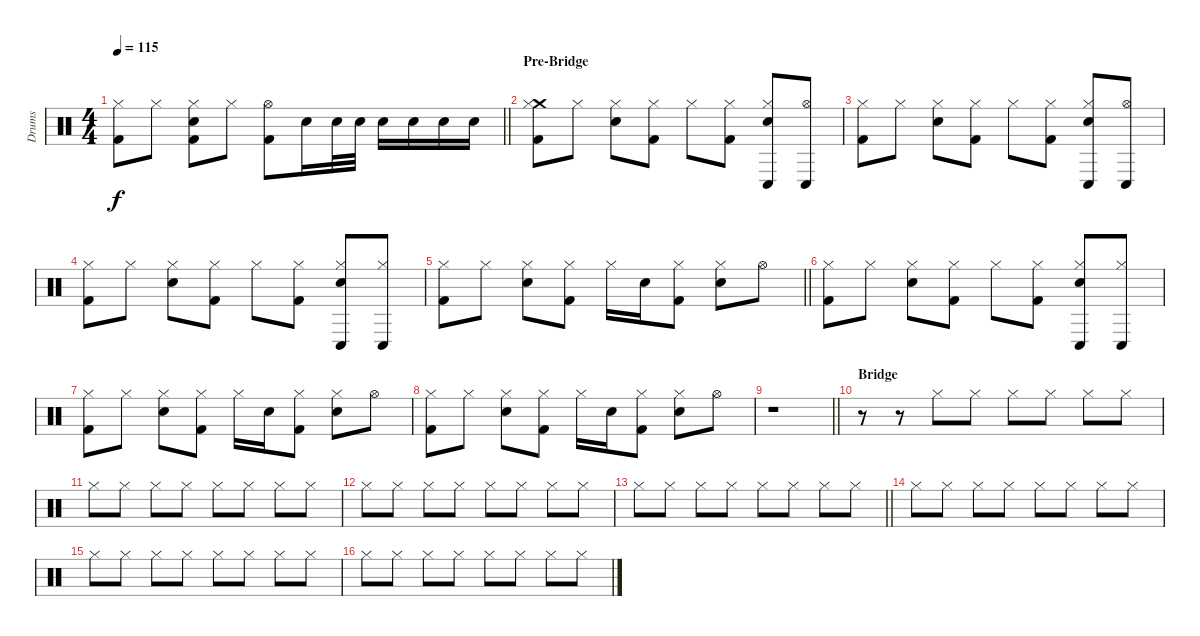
\track ("Drums" "Drums") {instrument percussion}
\staff {score}
\articulation defaults
\ts (4 4)
\tempo 115
\clef neutral
\barLineRight lightlight
\ks c
("Kick (hit) 2" "Hi-Hat (closed)").8{dy f} "Hi-Hat (closed)".8 ("Kick (hit) 2" "Electric Snare (hit)" "Hi-Hat (closed)").8 "Hi-Hat (closed)".8 ("Kick (hit) 2" "Hi-Hat (open)").8 "Electric Snare (hit)".16 "Electric Snare (hit)".32 "Electric Snare (hit)".32 "Electric Snare (hit)".16 "Electric Snare (hit)".16 "Electric Snare (hit)".16 "Electric Snare (hit)".16 |
\section ("" "Pre-Bridge")
("Crash medium (hit)" "Kick (hit) 2" "Hi-Hat (closed)").8 "Hi-Hat (closed)".8 ("Electric Snare (hit)" "Hi-Hat (closed)").8 ("Kick (hit) 2" "Hi-Hat (closed)").8 "Hi-Hat (closed)".8 ("Kick (hit) 2" "Hi-Hat (closed)").8 ("Conga low (hit)" "Electric Snare (hit)" "Hi-Hat (closed)").8 ("Conga low (hit)" "Hi-Hat (open)").8 |
("Kick (hit) 2" "Hi-Hat (closed)").8 "Hi-Hat (closed)".8 ("Electric Snare (hit)" "Hi-Hat (closed)").8 ("Kick (hit) 2" "Hi-Hat (closed)").8 "Hi-Hat (closed)".8 ("Kick (hit) 2" "Hi-Hat (closed)").8 ("Conga low (hit)" "Electric Snare (hit)" "Hi-Hat (closed)").8 ("Conga low (hit)" "Hi-Hat (open)").8 |
("Kick (hit) 2" "Hi-Hat (closed)").8 "Hi-Hat (closed)".8 ("Electric Snare (hit)" "Hi-Hat (closed)").8 ("Kick (hit) 2" "Hi-Hat (closed)").8 "Hi-Hat (closed)".8 ("Kick (hit) 2" "Hi-Hat (closed)").8 ("Conga low (hit)" "Electric Snare (hit)" "Hi-Hat (closed)").8 ("Conga low (hit)" "Hi-Hat (closed)").8 |
\barLineRight lightlight
("Kick (hit) 2" "Hi-Hat (closed)").8 "Hi-Hat (closed)".8 ("Electric Snare (hit)" "Hi-Hat (closed)").8 ("Kick (hit) 2" "Hi-Hat (closed)").8 "Hi-Hat (closed)".16 "Electric Snare (hit)".16 ("Kick (hit) 2" "Hi-Hat (closed)").8 ("Electric Snare (hit)" "Hi-Hat (closed)").8 "Hi-Hat (open)".8 |
("Kick (hit) 2" "Hi-Hat (closed)").8 "Hi-Hat (closed)".8 ("Electric Snare (hit)" "Hi-Hat (closed)").8 ("Kick (hit) 2" "Hi-Hat (closed)").8 "Hi-Hat (closed)".8 ("Kick (hit) 2" "Hi-Hat (closed)").8 ("Conga low (hit)" "Electric Snare (hit)" "Hi-Hat (closed)").8 ("Conga low (hit)" "Hi-Hat (closed)").8 |
("Kick (hit) 2" "Hi-Hat (closed)").8 "Hi-Hat (closed)".8 ("Electric Snare (hit)" "Hi-Hat (closed)").8 ("Kick (hit) 2" "Hi-Hat (closed)").8 "Hi-Hat (closed)".16 "Electric Snare (hit)".16 ("Kick (hit) 2" "Hi-Hat (closed)").8 ("Electric Snare (hit)" "Hi-Hat (closed)").8 "Hi-Hat (open)".8 |
("Kick (hit) 2" "Hi-Hat (closed)").8 "Hi-Hat (closed)".8 ("Electric Snare (hit)" "Hi-Hat (closed)").8 ("Kick (hit) 2" "Hi-Hat (closed)").8 "Hi-Hat (closed)".16 "Electric Snare (hit)".16 ("Kick (hit) 2" "Hi-Hat (closed)").8 ("Electric Snare (hit)" "Hi-Hat (closed)").8 "Hi-Hat (open)".8 |
\barLineRight lightlight
r.1 |
\section ("" "Bridge")
r.8 r.8 "Hi-Hat (closed)".8 "Hi-Hat (closed)".8 "Hi-Hat (closed)".8 "Hi-Hat (closed)".8 "Hi-Hat (closed)".8 "Hi-Hat (closed)".8 |
"Hi-Hat (closed)".8 "Hi-Hat (closed)".8 "Hi-Hat (closed)".8 "Hi-Hat (closed)".8 "Hi-Hat (closed)".8 "Hi-Hat (closed)".8 "Hi-Hat (closed)".8 "Hi-Hat (closed)".8 |
"Hi-Hat (closed)".8 "Hi-Hat (closed)".8 "Hi-Hat (closed)".8 "Hi-Hat (closed)".8 "Hi-Hat (closed)".8 "Hi-Hat (closed)".8 "Hi-Hat (closed)".8 "Hi-Hat (closed)".8 |
\barLineRight lightlight "Hi-Hat (closed)".8 "Hi-Hat (closed)".8 "Hi-Hat (closed)".8 "Hi-Hat (closed)".8 "Hi-Hat (closed)".8 "Hi-Hat (closed)".8 "Hi-Hat (closed)".8 "Hi-Hat (closed)".8
|
"Hi-Hat (closed)".8 "Hi-Hat (closed)".8 "Hi-Hat (closed)".8 "Hi-Hat (closed)".8 "Hi-Hat (closed)".8 "Hi-Hat (closed)".8 "Hi-Hat (closed)".8 "Hi-Hat (closed)".8 |
"Hi-Hat (closed)".8 "Hi-Hat (closed)".8 "Hi-Hat (closed)".8 "Hi-Hat (closed)".8 "Hi-Hat (closed)".8 "Hi-Hat (closed)".8 "Hi-Hat (closed)".8 "Hi-Hat (closed)".8 |
"Hi-Hat (closed)".8 "Hi-Hat (closed)".8 "Hi-Hat (closed)".8 "Hi-Hat (closed)".8 "Hi-Hat (closed)".8 "Hi-Hat (closed)".8 "Hi-Hat (closed)".8 "Hi-Hat (closed)".8
